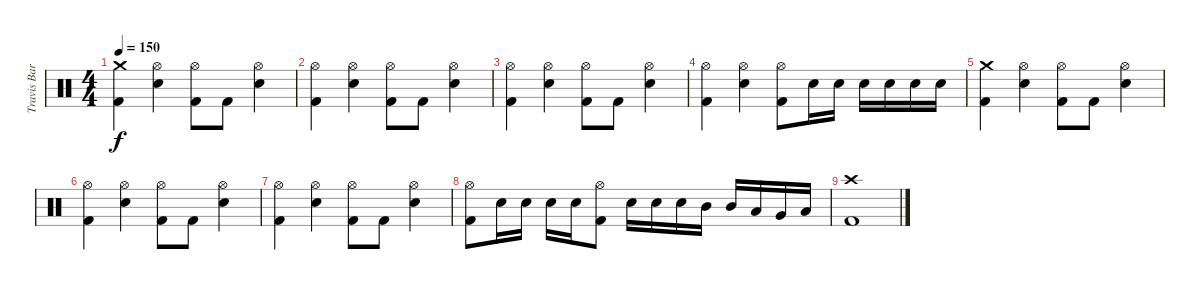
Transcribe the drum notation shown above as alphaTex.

\track ("Travis Barker - Drums" "Travis Bar") {instrument percussion}
\staff {score}
\articulation defaults
\ts (4 4)
\tempo 150
\clef neutral
\ks c
("Crash medium (hit)" "Kick (hit) 2").4{dy f} ("Hi-Hat (open)" "Electric Snare (hit)").4 ("Hi-Hat (open)" "Kick (hit) 2").8 "Kick (hit) 2".8 ("Hi-Hat (open)" "Electric Snare (hit)").4 |
("Hi-Hat (open)" "Kick (hit) 2").4 ("Hi-Hat (open)" "Electric Snare (hit)").4 ("Hi-Hat (open)" "Kick (hit) 2").8 "Kick (hit) 2".8 ("Hi-Hat (open)" "Electric Snare (hit)").4 |
("Hi-Hat (open)" "Kick (hit) 2").4 ("Hi-Hat (open)" "Electric Snare (hit)").4 ("Hi-Hat (open)" "Kick (hit) 2").8 "Kick (hit) 2".8 ("Hi-Hat (open)" "Electric Snare (hit)").4 |
("Hi-Hat (open)" "Kick (hit) 2").4 ("Hi-Hat (open)" "Electric Snare (hit)").4 ("Hi-Hat (open)" "Kick (hit) 2").8 "Electric Snare (hit)".16 "Electric Snare (hit)".16 "Electric Snare (hit)".16 "Electric Snare (hit)".16 "Electric Snare (hit)".16 "Electric Snare (hit)".16 |
("Crash medium (hit)" "Kick (hit) 2").4 ("Hi-Hat (open)" "Electric Snare (hit)").4 ("Hi-Hat (open)" "Kick (hit) 2").8 "Kick (hit) 2".8 ("Hi-Hat (open)" "Electric Snare (hit)").4 |
("Hi-Hat (open)" "Kick (hit) 2").4 ("Hi-Hat (open)" "Electric Snare (hit)").4 ("Hi-Hat (open)" "Kick (hit) 2").8 "Kick (hit) 2".8 ("Hi-Hat (open)" "Electric Snare (hit)").4 |
("Hi-Hat (open)" "Kick (hit) 2").4 ("Hi-Hat (open)" "Electric Snare (hit)").4 ("Hi-Hat (open)" "Kick (hit) 2").8 "Kick (hit) 2".8 ("Hi-Hat (open)" "Electric Snare (hit)").4 |
("Hi-Hat (open)" "Kick (hit) 2").8 "Electric Snare (hit)".16 "Electric Snare (hit)".16 "Electric Snare (hit)".16 "Electric Snare (hit)".16 ("Hi-Hat (open)" "Kick (hit) 2").8 "Electric Snare (hit)".16 "Electric Snare (hit)".16 "Electric Snare (hit)".16 "Mid Tom (hit)".16 "Mid Tom (hit)".16 "Low Tom (hit)".16 "Very Low Tom (hit)".16 "Low Floor Tom (hit)".16 |
("Crash high (hit)" "Kick (hit) 2").1
